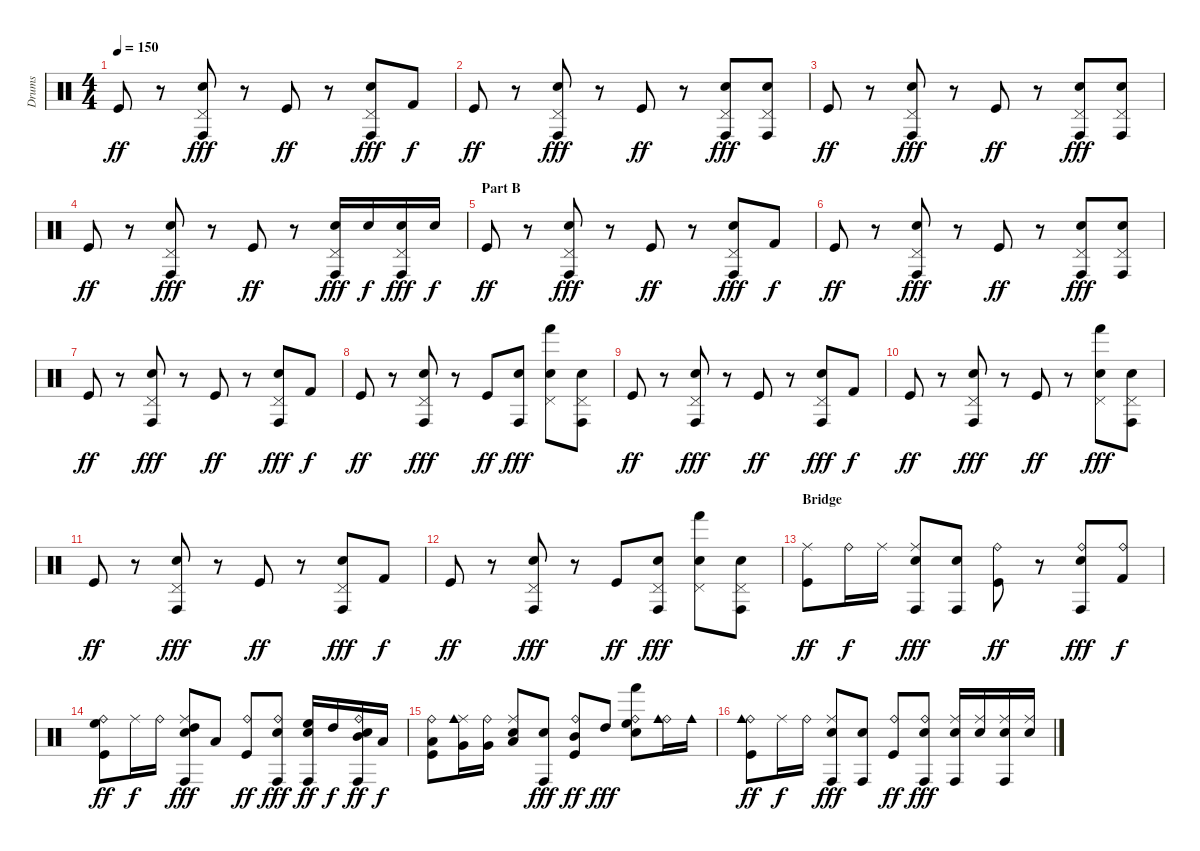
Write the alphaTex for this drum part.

\track ("Drums" "Drums") {instrument percussion}
\staff {score}
\articulation defaults
\ts (4 4)
\tempo 150
\clef neutral
\ks c "Kick (hit)".8{dy ff}
r.8 ("Pedal Hi-Hat (hit)" "Conga high (hit)" "Electric Snare (hit)").8{dy fff} r.8 "Kick (hit)".8{dy ff} r.8 ("Pedal Hi-Hat (hit)" "Conga high (hit)" "Electric Snare (hit)").8{dy fff} "Kick (hit) 2".8{dy f} |
"Kick (hit)".8{dy ff} r.8 ("Pedal Hi-Hat (hit)" "Conga high (hit)" "Electric Snare (hit)").8{dy fff} r.8 "Kick (hit)".8{dy ff} r.8 ("Pedal Hi-Hat (hit)" "Conga high (hit)" "Electric Snare (hit)").8{dy fff} ("Pedal Hi-Hat (hit)" "Conga high (hit)" "Electric Snare (hit)").8 |
"Kick (hit)".8{dy ff} r.8 ("Pedal Hi-Hat (hit)" "Conga high (hit)" "Electric Snare (hit)").8{dy fff} r.8 "Kick (hit)".8{dy ff} r.8 ("Pedal Hi-Hat (hit)" "Conga high (hit)" "Electric Snare (hit)").8{dy fff} ("Pedal Hi-Hat (hit)" "Conga high (hit)" "Electric Snare (hit)").8 |
"Kick (hit)".8{dy ff} r.8 ("Pedal Hi-Hat (hit)" "Conga high (hit)" "Electric Snare (hit)").8{dy fff} r.8 "Kick (hit)".8{dy ff} r.8 ("Pedal Hi-Hat (hit)" "Conga high (hit)" "Electric Snare (hit)").16{dy fff} "Electric Snare (hit)".16{dy f} ("Pedal Hi-Hat (hit)" "Conga high (hit)" "Electric Snare (hit)").16{dy fff} "Electric Snare (hit)".16{dy f} |
\section ("" "Part B")
"Kick (hit)".8{dy ff} r.8 ("Pedal Hi-Hat (hit)" "Conga high (hit)" "Electric Snare (hit)").8{dy fff} r.8 "Kick (hit)".8{dy ff} r.8 ("Pedal Hi-Hat (hit)" "Conga high (hit)" "Electric Snare (hit)").8{dy fff} "Kick (hit) 2".8{dy f} |
"Kick (hit)".8{dy ff} r.8 ("Pedal Hi-Hat (hit)" "Conga high (hit)" "Electric Snare (hit)").8{dy fff} r.8 "Kick (hit)".8{dy ff} r.8 ("Pedal Hi-Hat (hit)" "Conga high (hit)" "Electric Snare (hit)").8{dy fff} ("Pedal Hi-Hat (hit)" "Conga high (hit)" "Electric Snare (hit)").8 |
"Kick (hit)".8{dy ff} r.8 ("Pedal Hi-Hat (hit)" "Conga high (hit)" "Electric Snare (hit)").8{dy fff} r.8 "Kick (hit)".8{dy ff} r.8 ("Pedal Hi-Hat (hit)" "Conga high (hit)" "Electric Snare (hit)").8{dy fff} "Kick (hit) 2".8{dy f} |
"Kick (hit)".8{dy ff} r.8 ("Pedal Hi-Hat (hit)" "Conga high (hit)" "Electric Snare (hit)").8{dy fff} r.8 "Kick (hit)".8{dy ff} ("Conga high (hit)" "Electric Snare (hit)").8{dy fff} ("Pedal Hi-Hat (hit)" "Hand (hit)" "Electric Snare (hit)").8 ("Pedal Hi-Hat (hit)" "Conga high (hit)" "Electric Snare (hit)").8 |
"Kick (hit)".8{dy ff} r.8 ("Pedal Hi-Hat (hit)" "Conga high (hit)" "Electric Snare (hit)").8{dy fff} r.8 "Kick (hit)".8{dy ff} r.8 ("Pedal Hi-Hat (hit)" "Conga high (hit)" "Electric Snare (hit)").8{dy fff} "Kick (hit) 2".8{dy f} |
"Kick (hit)".8{dy ff} r.8 ("Pedal Hi-Hat (hit)" "Conga high (hit)" "Electric Snare (hit)").8{dy fff} r.8 "Kick (hit)".8{dy ff} r.8 ("Pedal Hi-Hat (hit)" "Hand (hit)" "Electric Snare (hit)").8{dy fff} ("Pedal Hi-Hat (hit)" "Conga high (hit)" "Electric Snare (hit)").8 |
"Kick (hit)".8{dy ff} r.8 ("Pedal Hi-Hat (hit)" "Conga high (hit)" "Electric Snare (hit)").8{dy fff} r.8 "Kick (hit)".8{dy ff} r.8 ("Pedal Hi-Hat (hit)" "Conga high (hit)" "Electric Snare (hit)").8{dy fff} "Kick (hit) 2".8{dy f} |
"Kick (hit)".8{dy ff} r.8 ("Pedal Hi-Hat (hit)" "Conga high (hit)" "Electric Snare (hit)").8{dy fff} r.8 "Kick (hit)".8{dy ff} ("Pedal Hi-Hat (hit)" "Conga high (hit)" "Electric Snare (hit)").8{dy fff} ("Pedal Hi-Hat (hit)" "Hand (hit)" "Electric Snare (hit)").8 ("Pedal Hi-Hat (hit)" "Conga high (hit)" "Electric Snare (hit)").8 |
\section ("" "Bridge")
("Ride (middle)" "Kick (hit)").8{dy ff} "Ride (bell)".16{dy f} "Ride (middle)".16 ("Ride (middle)" "Conga high (hit)" "Electric Snare (hit)").8{dy fff} ("Conga high (hit)" "Electric Snare (hit)").8 ("Ride (bell)" "Kick (hit)").8{dy ff} r.8 ("Ride (bell)" "Conga high (hit)" "Electric Snare (hit)").8{dy fff} ("Ride (bell)" "Kick (hit) 2").8{dy f} |
("Ride (bell)" "High Floor Tom (hit)" "Kick (hit)").8{dy ff} "Ride (middle)".16{dy f} "Ride (bell)".16 ("Ride (middle)" "High Tom (hit)" "Conga high (hit)" "Electric Snare (hit)").8{dy fff} "Low Tom (hit)".8 ("Ride (bell)" "Kick (hit)").8{dy ff} ("Ride (bell)" "Conga high (hit)" "Electric Snare (hit)").8{dy fff} ("High Floor Tom (hit)" "Conga high (hit)" "Electric Snare (hit)").16{dy ff} "High Tom (hit)".16{dy f} ("Ride (bell)" "Mid Tom (hit)" "Conga high (hit)" "Electric Snare (hit)").16{dy ff} "Low Tom (hit)".16{dy f} |
("Ride (bell)" "Low Floor Tom (hit)" "Kick (hit)").8 ("Ride (middle)" "Very Low Tom (hit)" "Cowbell medium (hit)").16 ("Ride (bell)" "Very Low Tom (hit)").16 ("Ride (middle)" "Low Tom (hit)" "Electric Snare (hit)").8 ("Conga high (hit)" "Electric Snare (hit)").8{dy fff} ("Ride (bell)" "Mid Tom (hit)" "Kick (hit)").8{dy ff} "High Tom (hit)".8{dy fff} ("Ride (bell)" "High Floor Tom (hit)" "Hand (hit)" "Electric Snare (hit)").8 ("Ride (bell)" "Cowbell medium (hit)").16 "Cowbell medium (hit)".16 |
("Ride (bell)" "Cowbell medium (hit)" "Kick (hit)").8{dy ff} "Ride (middle)".16{dy f} "Ride (bell)".16 ("Ride (middle)" "Conga high (hit)" "Electric Snare (hit)").8{dy fff} ("Conga high (hit)" "Electric Snare (hit)").8 ("Ride (bell)" "Kick (hit)").8{dy ff} ("Ride (bell)" "Conga high (hit)" "Electric Snare (hit)").8{dy fff} ("Ride (middle)" "Conga high (hit)" "Electric Snare (hit)").16 ("Ride (middle)" "Electric Snare (hit)").16 ("Ride (middle)" "Conga high (hit)" "Electric Snare (hit)").16 ("Ride (middle)" "Electric Snare (hit)").16
